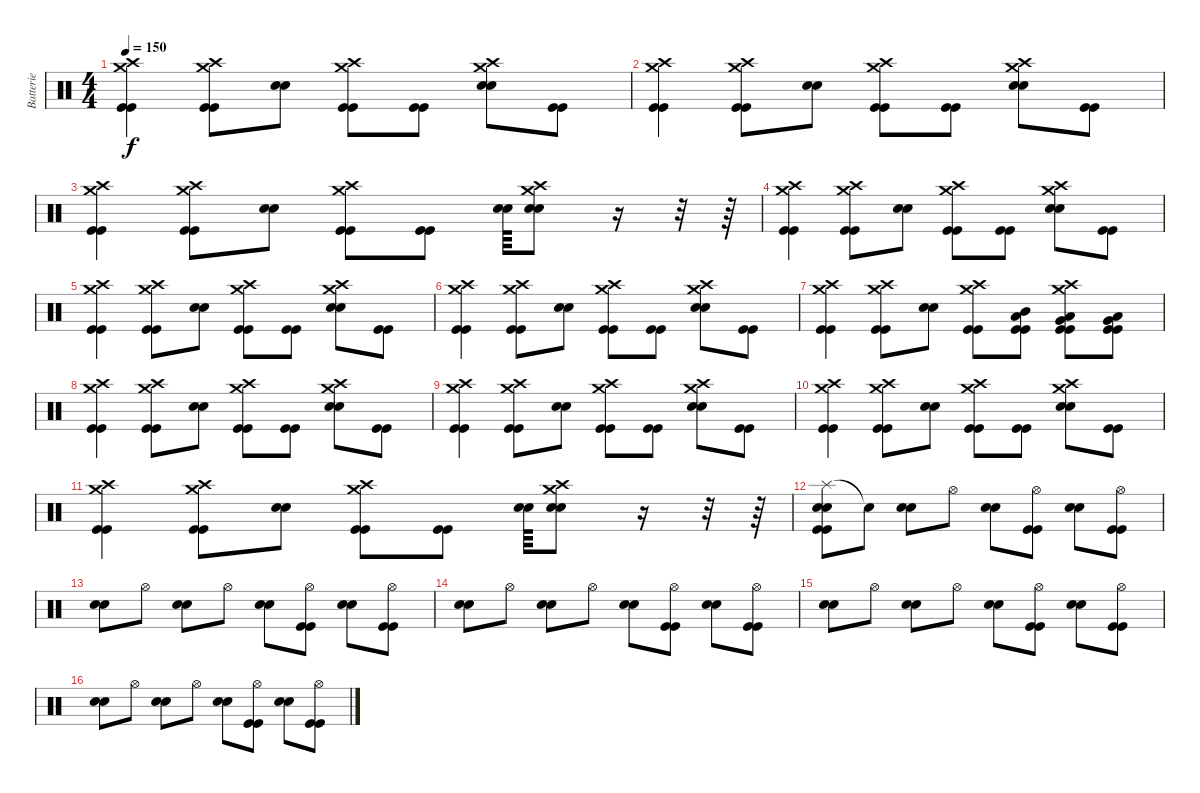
\track ("Batterie" "Batterie") {instrument percussion}
\staff {score}
\articulation defaults
\ts (4 4)
\tempo 150
\clef neutral
\ks c
("Crash high (hit)" "Crash medium (hit)" "Kick (hit)" "Kick (hit)").4{dy f} ("Crash high (hit)" "Crash medium (hit)" "Kick (hit)" "Kick (hit)").8 ("Electric Snare (hit)" "Electric Snare (hit)").8 ("Crash high (hit)" "Crash medium (hit)" "Kick (hit)" "Kick (hit)").8 ("Kick (hit)" "Kick (hit)").8 ("Crash high (hit)" "Crash medium (hit)" "Electric Snare (hit)" "Electric Snare (hit)").8 ("Kick (hit)" "Kick (hit)").8 |
("Crash high (hit)" "Crash medium (hit)" "Kick (hit)" "Kick (hit)").4 ("Crash high (hit)" "Crash medium (hit)" "Kick (hit)" "Kick (hit)").8 ("Electric Snare (hit)" "Electric Snare (hit)").8 ("Crash high (hit)" "Crash medium (hit)" "Kick (hit)" "Kick (hit)").8 ("Kick (hit)" "Kick (hit)").8 ("Crash high (hit)" "Crash medium (hit)" "Electric Snare (hit)" "Electric Snare (hit)").8 ("Kick (hit)" "Kick (hit)").8 |
("Crash high (hit)" "Crash medium (hit)" "Kick (hit)" "Kick (hit)").4 ("Crash high (hit)" "Crash medium (hit)" "Kick (hit)" "Kick (hit)").8 ("Electric Snare (hit)" "Electric Snare (hit)").8 ("Crash high (hit)" "Crash medium (hit)" "Kick (hit)" "Kick (hit)").8 ("Kick (hit)" "Kick (hit)").8 ("Electric Snare (hit)" "Electric Snare (hit)").64 ("Crash high (hit)" "Crash medium (hit)" "Electric Snare (hit)" "Electric Snare (hit)").8 r.16 r.32 r.64 |
("Crash high (hit)" "Crash medium (hit)" "Kick (hit)" "Kick (hit)").4 ("Crash high (hit)" "Crash medium (hit)" "Kick (hit)" "Kick (hit)").8 ("Electric Snare (hit)" "Electric Snare (hit)").8 ("Crash high (hit)" "Crash medium (hit)" "Kick (hit)" "Kick (hit)").8 ("Kick (hit)" "Kick (hit)").8 ("Crash high (hit)" "Crash medium (hit)" "Electric Snare (hit)" "Electric Snare (hit)").8 ("Kick (hit)" "Kick (hit)").8 |
("Crash high (hit)" "Crash medium (hit)" "Kick (hit)" "Kick (hit)").4 ("Crash high (hit)" "Crash medium (hit)" "Kick (hit)" "Kick (hit)").8 ("Electric Snare (hit)" "Electric Snare (hit)").8 ("Crash high (hit)" "Crash medium (hit)" "Kick (hit)" "Kick (hit)").8 ("Kick (hit)" "Kick (hit)").8 ("Crash high (hit)" "Crash medium (hit)" "Electric Snare (hit)" "Electric Snare (hit)").8 ("Kick (hit)" "Kick (hit)").8 |
("Crash high (hit)" "Crash medium (hit)" "Kick (hit)" "Kick (hit)").4 ("Crash high (hit)" "Crash medium (hit)" "Kick (hit)" "Kick (hit)").8 ("Electric Snare (hit)" "Electric Snare (hit)").8 ("Crash high (hit)" "Crash medium (hit)" "Kick (hit)" "Kick (hit)").8 ("Kick (hit)" "Kick (hit)").8 ("Crash high (hit)" "Crash medium (hit)" "Electric Snare (hit)" "Electric Snare (hit)").8 ("Kick (hit)" "Kick (hit)").8 |
("Crash high (hit)" "Crash medium (hit)" "Kick (hit)" "Kick (hit)").4 ("Crash high (hit)" "Crash medium (hit)" "Kick (hit)" "Kick (hit)").8 ("Electric Snare (hit)" "Electric Snare (hit)").8 ("Crash high (hit)" "Crash medium (hit)" "Kick (hit)" "Kick (hit)").8 ("Mid Tom (hit)" "Low Floor Tom (hit)" "Kick (hit)" "Kick (hit)").8 ("Crash high (hit)" "Crash medium (hit)" "Very Low Tom (hit)" "Low Floor Tom (hit)" "Kick (hit)" "Kick (hit)").8 ("Very Low Tom (hit)" "Low Floor Tom (hit)" "Kick (hit)" "Kick (hit)").8 |
("Crash high (hit)" "Crash medium (hit)" "Kick (hit)" "Kick (hit)").4 ("Crash high (hit)" "Crash medium (hit)" "Kick (hit)" "Kick (hit)").8 ("Electric Snare (hit)" "Electric Snare (hit)").8 ("Crash high (hit)" "Crash medium (hit)" "Kick (hit)" "Kick (hit)").8 ("Kick (hit)" "Kick (hit)").8 ("Crash high (hit)" "Crash medium (hit)" "Electric Snare (hit)" "Electric Snare (hit)").8 ("Kick (hit)" "Kick (hit)").8 |
("Crash high (hit)" "Crash medium (hit)" "Kick (hit)" "Kick (hit)").4 ("Crash high (hit)" "Crash medium (hit)" "Kick (hit)" "Kick (hit)").8 ("Electric Snare (hit)" "Electric Snare (hit)").8 ("Crash high (hit)" "Crash medium (hit)" "Kick (hit)" "Kick (hit)").8 ("Kick (hit)" "Kick (hit)").8 ("Crash high (hit)" "Crash medium (hit)" "Electric Snare (hit)" "Electric Snare (hit)").8 ("Kick (hit)" "Kick (hit)").8 |
("Crash high (hit)" "Crash medium (hit)" "Kick (hit)" "Kick (hit)").4 ("Crash high (hit)" "Crash medium (hit)" "Kick (hit)" "Kick (hit)").8 ("Electric Snare (hit)" "Electric Snare (hit)").8 ("Crash high (hit)" "Crash medium (hit)" "Kick (hit)" "Kick (hit)").8 ("Kick (hit)" "Kick (hit)").8 ("Crash high (hit)" "Crash medium (hit)" "Electric Snare (hit)" "Electric Snare (hit)").8 ("Kick (hit)" "Kick (hit)").8 |
("Crash high (hit)" "Crash medium (hit)" "Kick (hit)" "Kick (hit)").4 ("Crash high (hit)" "Crash medium (hit)" "Kick (hit)" "Kick (hit)").8 ("Electric Snare (hit)" "Electric Snare (hit)").8 ("Crash high (hit)" "Crash medium (hit)" "Kick (hit)" "Kick (hit)").8 ("Kick (hit)" "Kick (hit)").8 ("Electric Snare (hit)" "Electric Snare (hit)").64 ("Crash high (hit)" "Crash medium (hit)" "Electric Snare (hit)" "Electric Snare (hit)").8 r.16 r.32 r.64 |
("Splash (hit)" "Electric Snare (hit)" "Electric Snare (hit)" "Kick (hit)" "Kick (hit)").8 "Snare (hit)"{t}.8 ("Electric Snare (hit)" "Electric Snare (hit)").8 "Hi-Hat (open)".8 ("Electric Snare (hit)" "Electric Snare (hit)").8 ("Hi-Hat (open)" "Kick (hit)" "Kick (hit)").8 ("Electric Snare (hit)" "Electric Snare (hit)").8 ("Hi-Hat (open)" "Kick (hit)" "Kick (hit)").8 |
("Electric Snare (hit)" "Electric Snare (hit)").8 "Hi-Hat (open)".8 ("Electric Snare (hit)" "Electric Snare (hit)").8 "Hi-Hat (open)".8 ("Electric Snare (hit)" "Electric Snare (hit)").8 ("Hi-Hat (open)" "Kick (hit)" "Kick (hit)").8 ("Electric Snare (hit)" "Electric Snare (hit)").8 ("Hi-Hat (open)" "Kick (hit)" "Kick (hit)").8 |
("Electric Snare (hit)" "Electric Snare (hit)").8 "Hi-Hat (open)".8 ("Electric Snare (hit)" "Electric Snare (hit)").8 "Hi-Hat (open)".8 ("Electric Snare (hit)" "Electric Snare (hit)").8 ("Hi-Hat (open)" "Kick (hit)" "Kick (hit)").8 ("Electric Snare (hit)" "Electric Snare (hit)").8 ("Hi-Hat (open)" "Kick (hit)" "Kick (hit)").8 |
("Electric Snare (hit)" "Electric Snare (hit)").8 "Hi-Hat (open)".8 ("Electric Snare (hit)" "Electric Snare (hit)").8 "Hi-Hat (open)".8 ("Electric Snare (hit)" "Electric Snare (hit)").8 ("Hi-Hat (open)" "Kick (hit)" "Kick (hit)").8 ("Electric Snare (hit)" "Electric Snare (hit)").8 ("Hi-Hat (open)" "Kick (hit)" "Kick (hit)").8 |
("Electric Snare (hit)" "Electric Snare (hit)").8 "Hi-Hat (open)".8 ("Electric Snare (hit)" "Electric Snare (hit)").8 "Hi-Hat (open)".8 ("Electric Snare (hit)" "Electric Snare (hit)").8 ("Hi-Hat (open)" "Kick (hit)" "Kick (hit)").8 ("Electric Snare (hit)" "Electric Snare (hit)").8 ("Hi-Hat (open)" "Kick (hit)" "Kick (hit)").8
